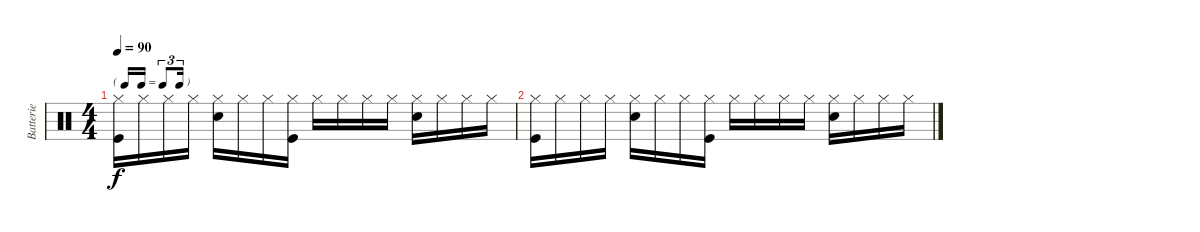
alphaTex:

\track ("Batterie" "Batterie") {instrument percussion}
\staff {score}
\articulation defaults
\ts (4 4)
\tf triplet16th
\tempo 90
\clef neutral
\ks c
("Hi-Hat (closed)" "Kick (hit)").16{dy f} "Hi-Hat (closed)".16 "Hi-Hat (closed)".16 "Hi-Hat (closed)".16 ("Hi-Hat (closed)" "Snare (hit) 2").16 "Hi-Hat (closed)".16 "Hi-Hat (closed)".16 ("Hi-Hat (closed)" "Kick (hit)").16 "Hi-Hat (closed)".16 "Hi-Hat (closed)".16 "Hi-Hat (closed)".16 "Hi-Hat (closed)".16 ("Hi-Hat (closed)" "Snare (hit) 2").16 "Hi-Hat (closed)".16 "Hi-Hat (closed)".16 "Hi-Hat (closed)".16 |
("Hi-Hat (closed)" "Kick (hit)").16 "Hi-Hat (closed)".16 "Hi-Hat (closed)".16 "Hi-Hat (closed)".16 ("Hi-Hat (closed)" "Snare (hit) 2").16 "Hi-Hat (closed)".16 "Hi-Hat (closed)".16 ("Hi-Hat (closed)" "Kick (hit)").16 "Hi-Hat (closed)".16 "Hi-Hat (closed)".16 "Hi-Hat (closed)".16 "Hi-Hat (closed)".16 ("Hi-Hat (closed)" "Snare (hit) 2").16 "Hi-Hat (closed)".16 "Hi-Hat (closed)".16 "Hi-Hat (closed)".16
